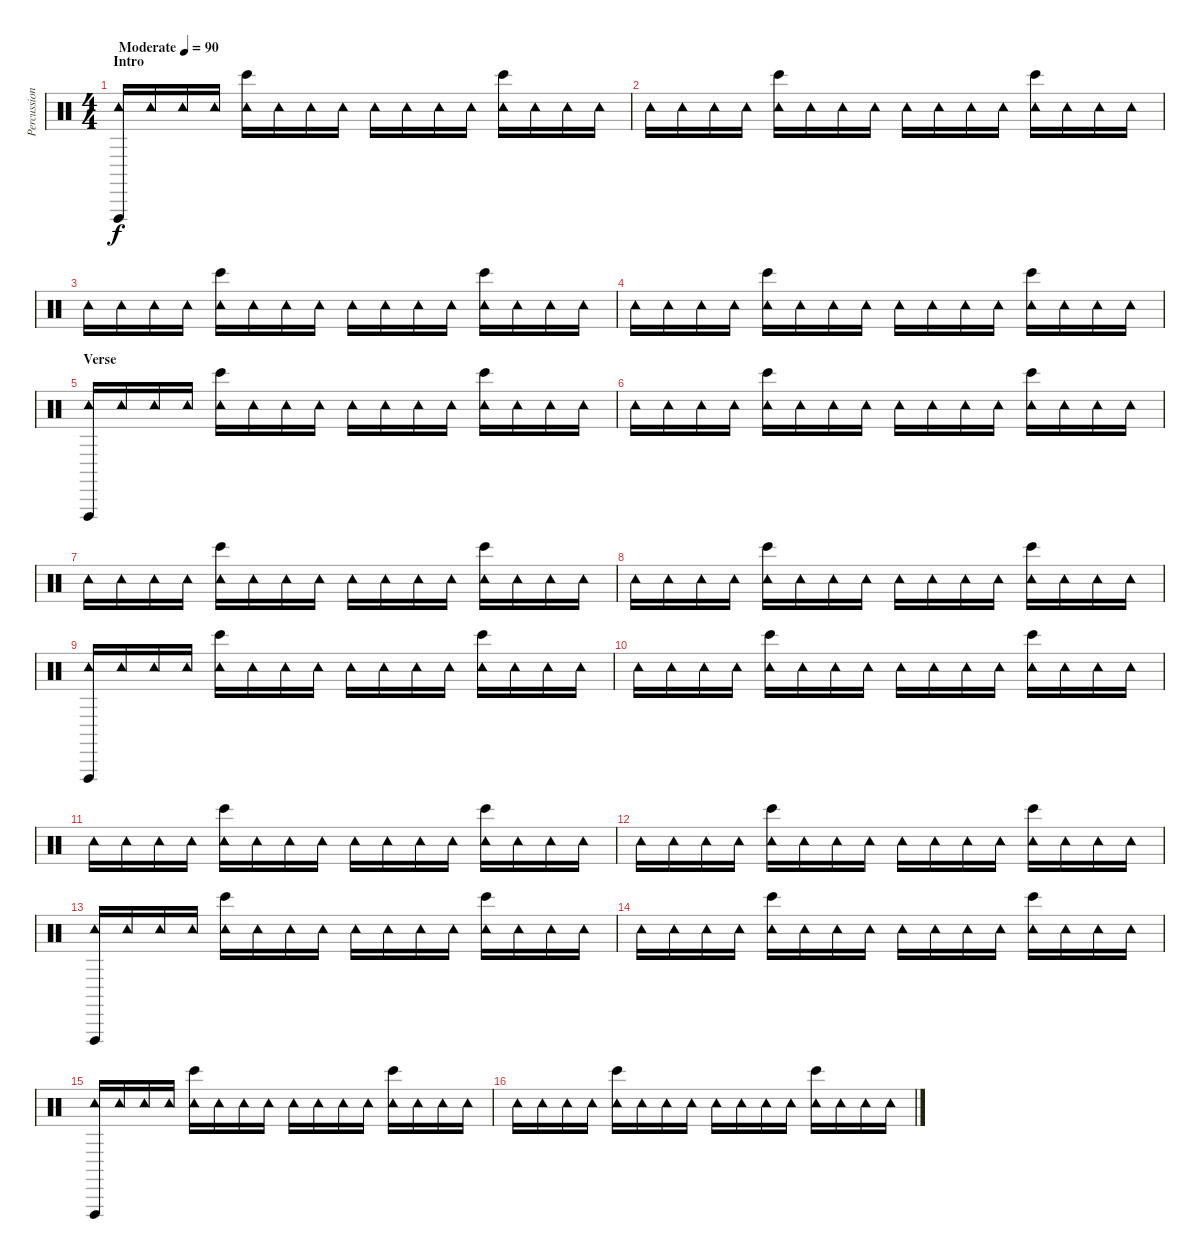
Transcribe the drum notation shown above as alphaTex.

\track ("Percussion" "Percussion") {instrument percussion}
\staff {score}
\articulation defaults
\ts (4 4)
\section ("" "Intro")
\tempo (90 "Moderate")
\clef neutral
\ks c
("Tambourine (hit)" "Vibraslap (hit)").16{dy f} "Tambourine (hit)".16 "Tambourine (hit)".16 "Tambourine (hit)".16 ("Tambourine (hit)" "Bongo High (hit)").16 "Tambourine (hit)".16 "Tambourine (hit)".16 "Tambourine (hit)".16 "Tambourine (hit)".16 "Tambourine (hit)".16 "Tambourine (hit)".16 "Tambourine (hit)".16 ("Tambourine (hit)" "Bongo High (hit)").16 "Tambourine (hit)".16 "Tambourine (hit)".16 "Tambourine (hit)".16 |
"Tambourine (hit)".16 "Tambourine (hit)".16 "Tambourine (hit)".16 "Tambourine (hit)".16 ("Tambourine (hit)" "Bongo High (hit)").16 "Tambourine (hit)".16 "Tambourine (hit)".16 "Tambourine (hit)".16 "Tambourine (hit)".16 "Tambourine (hit)".16 "Tambourine (hit)".16 "Tambourine (hit)".16 ("Tambourine (hit)" "Bongo High (hit)").16 "Tambourine (hit)".16 "Tambourine (hit)".16 "Tambourine (hit)".16 |
"Tambourine (hit)".16 "Tambourine (hit)".16 "Tambourine (hit)".16 "Tambourine (hit)".16 ("Tambourine (hit)" "Bongo High (hit)").16 "Tambourine (hit)".16 "Tambourine (hit)".16 "Tambourine (hit)".16 "Tambourine (hit)".16 "Tambourine (hit)".16 "Tambourine (hit)".16 "Tambourine (hit)".16 ("Tambourine (hit)" "Bongo High (hit)").16 "Tambourine (hit)".16 "Tambourine (hit)".16 "Tambourine (hit)".16 |
"Tambourine (hit)".16 "Tambourine (hit)".16 "Tambourine (hit)".16 "Tambourine (hit)".16 ("Tambourine (hit)" "Bongo High (hit)").16 "Tambourine (hit)".16 "Tambourine (hit)".16 "Tambourine (hit)".16 "Tambourine (hit)".16 "Tambourine (hit)".16 "Tambourine (hit)".16 "Tambourine (hit)".16 ("Tambourine (hit)" "Bongo High (hit)").16 "Tambourine (hit)".16 "Tambourine (hit)".16 "Tambourine (hit)".16 |
\section ("" "Verse")
("Tambourine (hit)" "Vibraslap (hit)").16 "Tambourine (hit)".16 "Tambourine (hit)".16 "Tambourine (hit)".16 ("Tambourine (hit)" "Bongo High (hit)").16 "Tambourine (hit)".16 "Tambourine (hit)".16 "Tambourine (hit)".16 "Tambourine (hit)".16 "Tambourine (hit)".16 "Tambourine (hit)".16 "Tambourine (hit)".16 ("Tambourine (hit)" "Bongo High (hit)").16 "Tambourine (hit)".16 "Tambourine (hit)".16 "Tambourine (hit)".16 |
"Tambourine (hit)".16 "Tambourine (hit)".16 "Tambourine (hit)".16 "Tambourine (hit)".16 ("Tambourine (hit)" "Bongo High (hit)").16 "Tambourine (hit)".16 "Tambourine (hit)".16 "Tambourine (hit)".16 "Tambourine (hit)".16 "Tambourine (hit)".16 "Tambourine (hit)".16 "Tambourine (hit)".16 ("Tambourine (hit)" "Bongo High (hit)").16 "Tambourine (hit)".16 "Tambourine (hit)".16 "Tambourine (hit)".16 |
"Tambourine (hit)".16 "Tambourine (hit)".16 "Tambourine (hit)".16 "Tambourine (hit)".16 ("Tambourine (hit)" "Bongo High (hit)").16 "Tambourine (hit)".16 "Tambourine (hit)".16 "Tambourine (hit)".16 "Tambourine (hit)".16 "Tambourine (hit)".16 "Tambourine (hit)".16 "Tambourine (hit)".16 ("Tambourine (hit)" "Bongo High (hit)").16 "Tambourine (hit)".16 "Tambourine (hit)".16 "Tambourine (hit)".16 |
"Tambourine (hit)".16 "Tambourine (hit)".16 "Tambourine (hit)".16 "Tambourine (hit)".16 ("Tambourine (hit)" "Bongo High (hit)").16 "Tambourine (hit)".16 "Tambourine (hit)".16 "Tambourine (hit)".16 "Tambourine (hit)".16 "Tambourine (hit)".16 "Tambourine (hit)".16 "Tambourine (hit)".16 ("Tambourine (hit)" "Bongo High (hit)").16 "Tambourine (hit)".16 "Tambourine (hit)".16 "Tambourine (hit)".16 |
("Tambourine (hit)" "Vibraslap (hit)").16 "Tambourine (hit)".16 "Tambourine (hit)".16 "Tambourine (hit)".16 ("Tambourine (hit)" "Bongo High (hit)").16 "Tambourine (hit)".16 "Tambourine (hit)".16 "Tambourine (hit)".16 "Tambourine (hit)".16 "Tambourine (hit)".16 "Tambourine (hit)".16 "Tambourine (hit)".16 ("Tambourine (hit)" "Bongo High (hit)").16 "Tambourine (hit)".16 "Tambourine (hit)".16 "Tambourine (hit)".16 |
"Tambourine (hit)".16 "Tambourine (hit)".16 "Tambourine (hit)".16 "Tambourine (hit)".16 ("Tambourine (hit)" "Bongo High (hit)").16 "Tambourine (hit)".16 "Tambourine (hit)".16 "Tambourine (hit)".16 "Tambourine (hit)".16 "Tambourine (hit)".16 "Tambourine (hit)".16 "Tambourine (hit)".16 ("Tambourine (hit)" "Bongo High (hit)").16 "Tambourine (hit)".16 "Tambourine (hit)".16 "Tambourine (hit)".16 |
"Tambourine (hit)".16 "Tambourine (hit)".16 "Tambourine (hit)".16 "Tambourine (hit)".16 ("Tambourine (hit)" "Bongo High (hit)").16 "Tambourine (hit)".16 "Tambourine (hit)".16 "Tambourine (hit)".16 "Tambourine (hit)".16 "Tambourine (hit)".16 "Tambourine (hit)".16 "Tambourine (hit)".16 ("Tambourine (hit)" "Bongo High (hit)").16 "Tambourine (hit)".16 "Tambourine (hit)".16 "Tambourine (hit)".16 |
"Tambourine (hit)".16 "Tambourine (hit)".16 "Tambourine (hit)".16 "Tambourine (hit)".16 ("Tambourine (hit)" "Bongo High (hit)").16 "Tambourine (hit)".16 "Tambourine (hit)".16 "Tambourine (hit)".16 "Tambourine (hit)".16 "Tambourine (hit)".16 "Tambourine (hit)".16 "Tambourine (hit)".16 ("Tambourine (hit)" "Bongo High (hit)").16 "Tambourine (hit)".16 "Tambourine (hit)".16 "Tambourine (hit)".16 |
("Tambourine (hit)" "Vibraslap (hit)").16 "Tambourine (hit)".16 "Tambourine (hit)".16 "Tambourine (hit)".16 ("Tambourine (hit)" "Bongo High (hit)").16 "Tambourine (hit)".16 "Tambourine (hit)".16 "Tambourine (hit)".16 "Tambourine (hit)".16 "Tambourine (hit)".16 "Tambourine (hit)".16 "Tambourine (hit)".16 ("Tambourine (hit)" "Bongo High (hit)").16 "Tambourine (hit)".16 "Tambourine (hit)".16 "Tambourine (hit)".16 |
"Tambourine (hit)".16 "Tambourine (hit)".16 "Tambourine (hit)".16 "Tambourine (hit)".16 ("Tambourine (hit)" "Bongo High (hit)").16 "Tambourine (hit)".16 "Tambourine (hit)".16 "Tambourine (hit)".16 "Tambourine (hit)".16 "Tambourine (hit)".16 "Tambourine (hit)".16 "Tambourine (hit)".16 ("Tambourine (hit)" "Bongo High (hit)").16 "Tambourine (hit)".16 "Tambourine (hit)".16 "Tambourine (hit)".16 |
("Tambourine (hit)" "Vibraslap (hit)").16 "Tambourine (hit)".16 "Tambourine (hit)".16 "Tambourine (hit)".16 ("Tambourine (hit)" "Bongo High (hit)").16 "Tambourine (hit)".16 "Tambourine (hit)".16 "Tambourine (hit)".16 "Tambourine (hit)".16 "Tambourine (hit)".16 "Tambourine (hit)".16 "Tambourine (hit)".16 ("Tambourine (hit)" "Bongo High (hit)").16 "Tambourine (hit)".16 "Tambourine (hit)".16 "Tambourine (hit)".16 |
"Tambourine (hit)".16 "Tambourine (hit)".16 "Tambourine (hit)".16 "Tambourine (hit)".16 ("Tambourine (hit)" "Bongo High (hit)").16 "Tambourine (hit)".16 "Tambourine (hit)".16 "Tambourine (hit)".16 "Tambourine (hit)".16 "Tambourine (hit)".16 "Tambourine (hit)".16 "Tambourine (hit)".16 ("Tambourine (hit)" "Bongo High (hit)").16 "Tambourine (hit)".16 "Tambourine (hit)".16 "Tambourine (hit)".16
